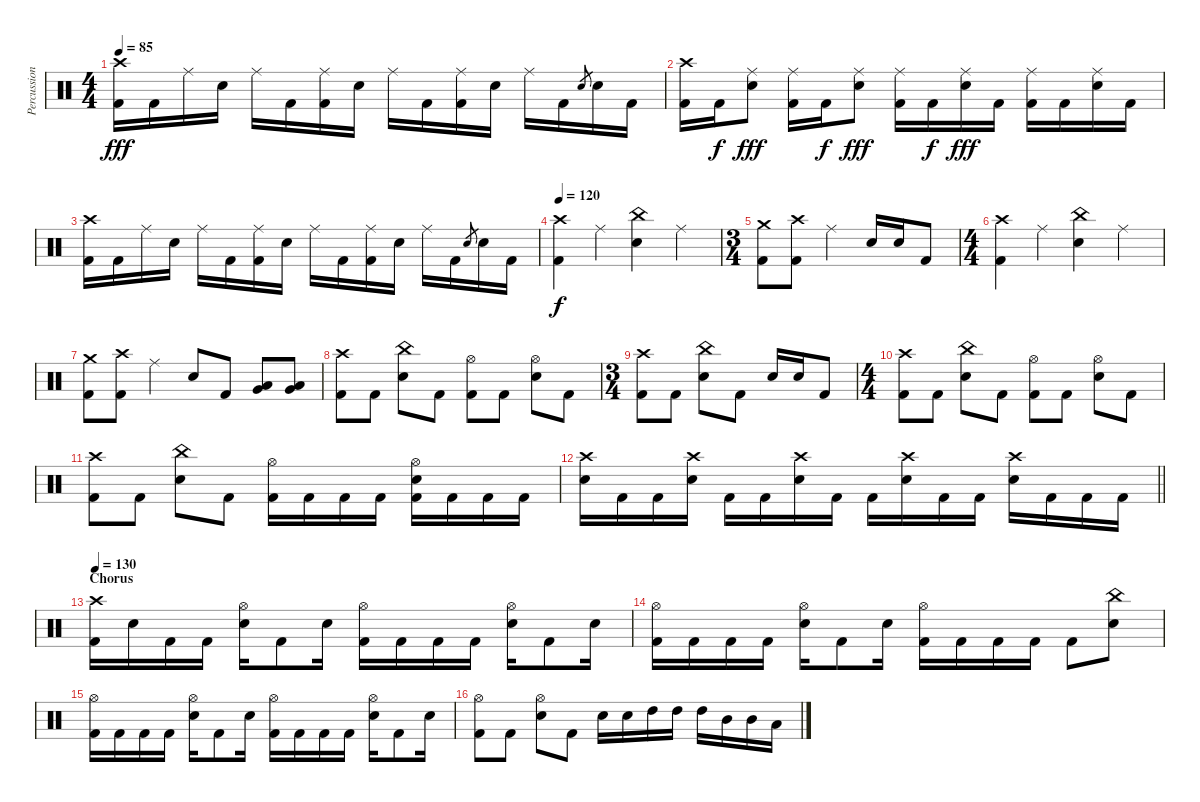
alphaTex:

\track ("Percussion" "Percussion") {instrument percussion}
\staff {score}
\articulation defaults
\ts (4 4)
\tempo 85
\clef neutral
\ks c
("Crash high (hit)" "Kick (hit) 2").16{dy fff} "Kick (hit) 2".16 "Ride (middle)".16 "Snare (hit) 2".16 "Ride (middle)".16 "Kick (hit) 2".16 ("Kick (hit) 2" "Ride (middle)").16 "Snare (hit) 2".16 "Ride (middle)".16 "Kick (hit) 2".16 ("Kick (hit) 2" "Ride (middle)").16 "Snare (hit) 2".16 "Ride (middle)".16 "Kick (hit) 2".16 "Snare (hit) 2".8{gr} "Snare (hit) 2".16 "Kick (hit) 2".16 |
("Kick (hit) 2" "Crash high (hit)").16 "Kick (hit) 2".16{dy f} ("Snare (hit) 2" "Ride (middle)").8{dy fff} ("Kick (hit) 2" "Ride (middle)").16 "Kick (hit) 2".16{dy f} ("Snare (hit) 2" "Ride (middle)").8{dy fff} ("Kick (hit) 2" "Ride (middle)").16 "Kick (hit) 2".16{dy f} ("Snare (hit) 2" "Ride (middle)").16{dy fff} "Kick (hit) 2".16 ("Kick (hit) 2" "Ride (middle)").16 "Kick (hit) 2".16 ("Snare (hit) 2" "Ride (middle)").16 "Kick (hit) 2".16 |
("Crash high (hit)" "Kick (hit) 2").16 "Kick (hit) 2".16 "Ride (middle)".16 "Snare (hit) 2".16 "Ride (middle)".16 "Kick (hit) 2".16 ("Kick (hit) 2" "Ride (middle)").16 "Snare (hit) 2".16 "Ride (middle)".16 "Kick (hit) 2".16 ("Kick (hit) 2" "Ride (middle)").16 "Snare (hit) 2".16 "Ride (middle)".16 "Kick (hit) 2".16 "Snare (hit) 2".8{gr} "Snare (hit) 2".16 "Kick (hit) 2".16 |
\tempo 120
("Kick (hit) 2" "Crash high (hit)").4{dy f} "Ride (middle)".4 ("Snare (hit) 2" "China (hit)").4 "Ride (middle)".4 |
\ts (3 4)
("Kick (hit) 2" "Crash medium (hit)").8 ("Kick (hit) 2" "Crash high (hit)").8 "Ride (middle)".4 "Snare (hit) 2".16 "Snare (hit) 2".16 "Kick (hit) 2".8 |
\ts (4 4)
("Kick (hit) 2" "Crash high (hit)").4 "Ride (middle)".4 ("Snare (hit) 2" "China (hit)").4 "Ride (middle)".4 |
("Kick (hit) 2" "Crash medium (hit)").8 ("Kick (hit) 2" "Crash high (hit)").8 "Ride (middle)".4 "Snare (hit) 2".8 "Kick (hit) 2".8 ("Low Tom (hit)" "Very Low Tom (hit)").8 ("Very Low Tom (hit)" "Low Floor Tom (hit)").8 |
("Kick (hit) 2" "Crash high (hit)").8 "Kick (hit) 2".8 ("Snare (hit) 2" "China (hit)").8 "Kick (hit) 2".8 ("Kick (hit) 2" "Hi-Hat (open)").8 "Kick (hit) 2".8 ("Snare (hit) 2" "Hi-Hat (open)").8 "Kick (hit) 2".8 |
\ts (3 4)
("Kick (hit) 2" "Crash high (hit)").8 "Kick (hit) 2".8 ("Snare (hit) 2" "China (hit)").8 "Kick (hit) 2".8 "Snare (hit) 2".16 "Snare (hit) 2".16 "Kick (hit) 2".8 |
\ts (4 4)
("Kick (hit) 2" "Crash high (hit)").8 "Kick (hit) 2".8 ("Snare (hit) 2" "China (hit)").8 "Kick (hit) 2".8 ("Kick (hit) 2" "Hi-Hat (open)").8 "Kick (hit) 2".8 ("Snare (hit) 2" "Hi-Hat (open)").8 "Kick (hit) 2".8 |
("Kick (hit) 2" "Crash high (hit)").8 "Kick (hit) 2".8 ("Snare (hit) 2" "China (hit)").8 "Kick (hit) 2".8 ("Kick (hit) 2" "Hi-Hat (open)").16 "Kick (hit) 2".16 "Kick (hit) 2".16 "Kick (hit) 2".16 ("Kick (hit) 2" "Hi-Hat (open)" "Snare (hit) 2").16 "Kick (hit) 2".16 "Kick (hit) 2".16 "Kick (hit) 2".16 |
\barLineRight lightlight
("Snare (hit) 2" "Crash high (hit)").16 "Kick (hit) 2".16 "Kick (hit) 2".16 ("Snare (hit) 2" "Crash high (hit)").16 "Kick (hit) 2".16 "Kick (hit) 2".16 ("Snare (hit) 2" "Crash high (hit)").16 "Kick (hit) 2".16 "Kick (hit) 2".16 ("Snare (hit) 2" "Crash high (hit)").16 "Kick (hit) 2".16 "Kick (hit) 2".16 ("Snare (hit) 2" "Crash high (hit)").16 "Kick (hit) 2".16 "Kick (hit) 2".16 "Kick (hit) 2".16 |
\section ("" "Chorus")
\tempo 130
("Kick (hit) 2" "Crash high (hit)").16 "Snare (hit) 2".16 "Kick (hit) 2".16 "Kick (hit) 2".16 ("Snare (hit) 2" "Hi-Hat (open)").16 "Kick (hit) 2".8 "Snare (hit) 2".16 ("Kick (hit) 2" "Hi-Hat (open)").16 "Kick (hit) 2".16 "Kick (hit) 2".16 "Kick (hit) 2".16 ("Snare (hit) 2" "Hi-Hat (open)").16 "Kick (hit) 2".8 "Snare (hit) 2".16 |
("Kick (hit) 2" "Hi-Hat (open)").16 "Kick (hit) 2".16 "Kick (hit) 2".16 "Kick (hit) 2".16 ("Snare (hit) 2" "Hi-Hat (open)").16 "Kick (hit) 2".8 "Snare (hit) 2".16 ("Kick (hit) 2" "Hi-Hat (open)").16 "Kick (hit) 2".16 "Kick (hit) 2".16 "Kick (hit) 2".16 "Kick (hit) 2".8 ("Snare (hit) 2" "China (hit)").8 |
("Kick (hit) 2" "Hi-Hat (open)").16 "Kick (hit) 2".16 "Kick (hit) 2".16 "Kick (hit) 2".16 ("Snare (hit) 2" "Hi-Hat (open)").16 "Kick (hit) 2".8 "Snare (hit) 2".16 ("Kick (hit) 2" "Hi-Hat (open)").16 "Kick (hit) 2".16 "Kick (hit) 2".16 "Kick (hit) 2".16 ("Snare (hit) 2" "Hi-Hat (open)").16 "Kick (hit) 2".8 "Snare (hit) 2".16 |
("Kick (hit) 2" "Hi-Hat (open)").8 "Kick (hit) 2".8 ("Snare (hit) 2" "Hi-Hat (open)").8 "Kick (hit) 2".8 "Snare (hit) 2".16 "Snare (hit) 2".16 "High Tom (hit)".16 "High Tom (hit)".16 "High Tom (hit)".16 "Mid Tom (hit)".16 "Mid Tom (hit)".16 "Low Tom (hit)".16
